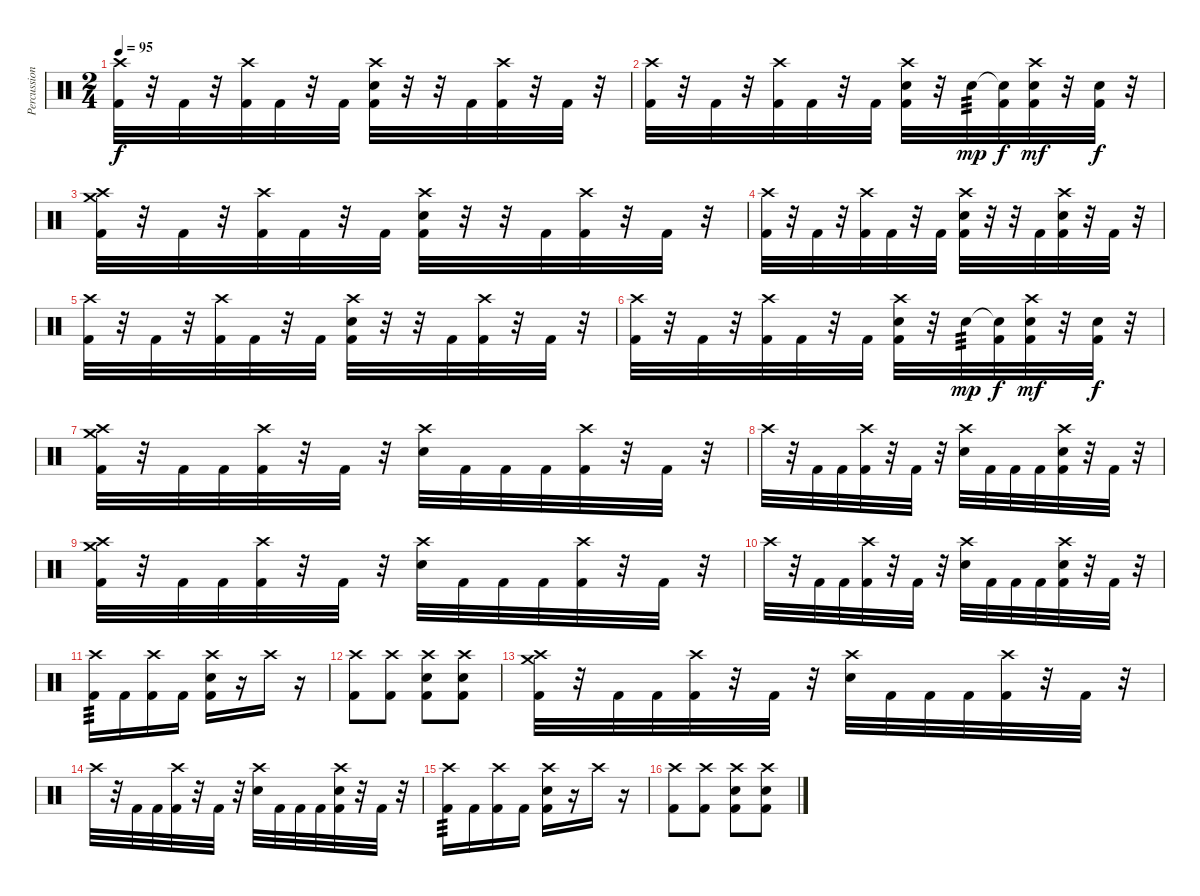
\track ("Percussion" "Percussion") {instrument percussion}
\staff {score}
\articulation defaults
\ts (2 4)
\tempo 95
\clef neutral
\ks c
("Crash high (hit)" "Kick (hit) 2").32{dy f} r.32 "Kick (hit) 2".32 r.32 ("Crash high (hit)" "Kick (hit) 2").32 "Kick (hit) 2".32 r.32 "Kick (hit) 2".32 ("Crash high (hit)" "Electric Snare (hit)" "Kick (hit) 2").32 r.32 r.32 "Kick (hit) 2".32 ("Crash high (hit)" "Kick (hit) 2").32 r.32 "Kick (hit) 2".32 r.32 |
("Crash high (hit)" "Kick (hit) 2").32 r.32 "Kick (hit) 2".32 r.32 ("Crash high (hit)" "Kick (hit) 2").32 "Kick (hit) 2".32 r.32 "Kick (hit) 2".32 ("Crash high (hit)" "Electric Snare (hit)" "Kick (hit) 2").32 r.32 "Electric Snare (hit)".32{tp 3 dy mp} ("Snare (hit)"{t} "Kick (hit) 2").32{dy f} ("Crash high (hit)" "Electric Snare (hit)" "Kick (hit) 2").32{dy mf} r.32 ("Electric Snare (hit)" "Kick (hit) 2").32{dy f} r.32 |
("Crash medium (hit)" "Crash high (hit)" "Kick (hit) 2").32 r.32 "Kick (hit) 2".32 r.32 ("Crash high (hit)" "Kick (hit) 2").32 "Kick (hit) 2".32 r.32 "Kick (hit) 2".32 ("Crash high (hit)" "Electric Snare (hit)" "Kick (hit) 2").32 r.32 r.32 "Kick (hit) 2".32 ("Crash high (hit)" "Kick (hit) 2").32 r.32 "Kick (hit) 2".32 r.32 |
("Crash high (hit)" "Kick (hit) 2").32 r.32 "Kick (hit) 2".32 r.32 ("Crash high (hit)" "Kick (hit) 2").32 "Kick (hit) 2".32 r.32 "Kick (hit) 2".32 ("Crash high (hit)" "Electric Snare (hit)" "Kick (hit) 2").32 r.32 r.32 "Kick (hit) 2".32 ("Crash high (hit)" "Electric Snare (hit)" "Kick (hit) 2").32 r.32 "Kick (hit) 2".32 r.32 |
("Crash high (hit)" "Kick (hit) 2").32 r.32 "Kick (hit) 2".32 r.32 ("Crash high (hit)" "Kick (hit) 2").32 "Kick (hit) 2".32 r.32 "Kick (hit) 2".32 ("Crash high (hit)" "Electric Snare (hit)" "Kick (hit) 2").32 r.32 r.32 "Kick (hit) 2".32 ("Crash high (hit)" "Kick (hit) 2").32 r.32 "Kick (hit) 2".32 r.32 |
("Crash high (hit)" "Kick (hit) 2").32 r.32 "Kick (hit) 2".32 r.32 ("Crash high (hit)" "Kick (hit) 2").32 "Kick (hit) 2".32 r.32 "Kick (hit) 2".32 ("Crash high (hit)" "Electric Snare (hit)" "Kick (hit) 2").32 r.32 "Electric Snare (hit)".32{tp 3 dy mp} ("Snare (hit)"{t} "Kick (hit) 2").32{dy f} ("Crash high (hit)" "Electric Snare (hit)" "Kick (hit) 2").32{dy mf} r.32 ("Electric Snare (hit)" "Kick (hit) 2").32{dy f} r.32 |
("Crash medium (hit)" "Crash high (hit)" "Kick (hit) 2").32 r.32 "Kick (hit) 2".32 "Kick (hit) 2".32 ("Crash high (hit)" "Kick (hit) 2").32 r.32 "Kick (hit) 2".32 r.32 ("Crash high (hit)" "Electric Snare (hit)").32 "Kick (hit) 2".32 "Kick (hit) 2".32 "Kick (hit) 2".32 ("Crash high (hit)" "Kick (hit) 2").32 r.32 "Kick (hit) 2".32 r.32 |
"Crash high (hit)".32 r.32 "Kick (hit) 2".32 "Kick (hit) 2".32 ("Crash high (hit)" "Kick (hit) 2").32 r.32 "Kick (hit) 2".32 r.32 ("Crash high (hit)" "Electric Snare (hit)").32 "Kick (hit) 2".32 "Kick (hit) 2".32 "Kick (hit) 2".32 ("Crash high (hit)" "Electric Snare (hit)" "Kick (hit) 2").32 r.32 "Kick (hit) 2".32 r.32 |
("Crash medium (hit)" "Crash high (hit)" "Kick (hit) 2").32 r.32 "Kick (hit) 2".32 "Kick (hit) 2".32 ("Crash high (hit)" "Kick (hit) 2").32 r.32 "Kick (hit) 2".32 r.32 ("Crash high (hit)" "Electric Snare (hit)").32 "Kick (hit) 2".32 "Kick (hit) 2".32 "Kick (hit) 2".32 ("Crash high (hit)" "Kick (hit) 2").32 r.32 "Kick (hit) 2".32 r.32 |
"Crash high (hit)".32 r.32 "Kick (hit) 2".32 "Kick (hit) 2".32 ("Crash high (hit)" "Kick (hit) 2").32 r.32 "Kick (hit) 2".32 r.32 ("Crash high (hit)" "Electric Snare (hit)").32 "Kick (hit) 2".32 "Kick (hit) 2".32 "Kick (hit) 2".32 ("Crash high (hit)" "Electric Snare (hit)" "Kick (hit) 2").32 r.32 "Kick (hit) 2".32 r.32 |
("Crash high (hit)" "Kick (hit) 2").16{tp 3} "Kick (hit) 2".16 ("Crash high (hit)" "Kick (hit) 2").16 "Kick (hit) 2".16 ("Crash high (hit)" "Electric Snare (hit)" "Kick (hit) 2").16 r.16 "Crash high (hit)".16 r.16 |
("Crash high (hit)" "Kick (hit) 2").8 ("Crash high (hit)" "Kick (hit) 2").8 ("Crash high (hit)" "Electric Snare (hit)" "Kick (hit) 2").8 ("Crash high (hit)" "Electric Snare (hit)" "Kick (hit) 2").8 |
("Crash medium (hit)" "Crash high (hit)" "Kick (hit) 2").32 r.32 "Kick (hit) 2".32 "Kick (hit) 2".32 ("Crash high (hit)" "Kick (hit) 2").32 r.32 "Kick (hit) 2".32 r.32 ("Crash high (hit)" "Electric Snare (hit)").32 "Kick (hit) 2".32 "Kick (hit) 2".32 "Kick (hit) 2".32 ("Crash high (hit)" "Kick (hit) 2").32 r.32 "Kick (hit) 2".32 r.32 |
"Crash high (hit)".32 r.32 "Kick (hit) 2".32 "Kick (hit) 2".32 ("Crash high (hit)" "Kick (hit) 2").32 r.32 "Kick (hit) 2".32 r.32 ("Crash high (hit)" "Electric Snare (hit)").32 "Kick (hit) 2".32 "Kick (hit) 2".32 "Kick (hit) 2".32 ("Crash high (hit)" "Electric Snare (hit)" "Kick (hit) 2").32 r.32 "Kick (hit) 2".32 r.32 |
("Crash high (hit)" "Kick (hit) 2").16{tp 3} "Kick (hit) 2".16 ("Crash high (hit)" "Kick (hit) 2").16 "Kick (hit) 2".16 ("Crash high (hit)" "Electric Snare (hit)" "Kick (hit) 2").16 r.16 "Crash high (hit)".16 r.16 |
("Crash high (hit)" "Kick (hit) 2").8 ("Crash high (hit)" "Kick (hit) 2").8 ("Crash high (hit)" "Electric Snare (hit)" "Kick (hit) 2").8 ("Crash high (hit)" "Electric Snare (hit)" "Kick (hit) 2").8
